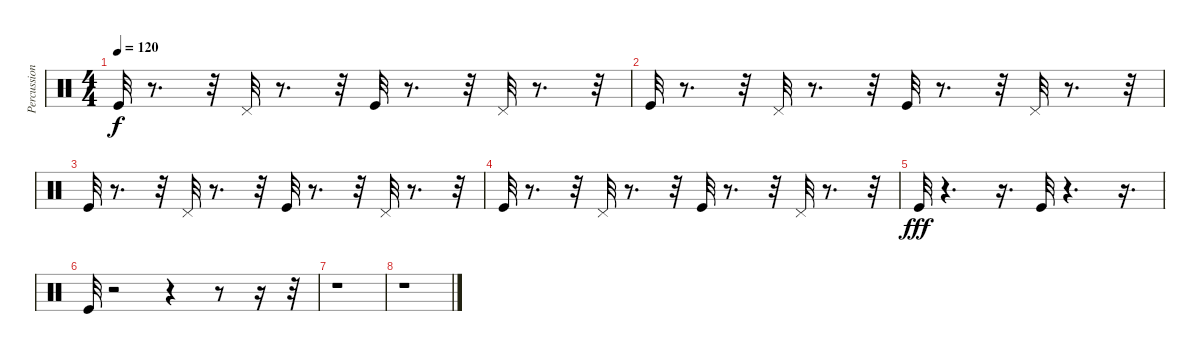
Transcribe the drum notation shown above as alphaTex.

\track ("Percussion" "Percussion") {instrument percussion}
\staff {score}
\articulation defaults
\ts (4 4)
\tempo 120
\clef neutral
\ks c "Kick (hit)".32{dy f}
r.8{d} r.32 "Pedal Hi-Hat (hit)".32 r.8{d} r.32 "Kick (hit)".32 r.8{d} r.32 "Pedal Hi-Hat (hit)".32 r.8{d} r.32 |
"Kick (hit)".32 r.8{d} r.32 "Pedal Hi-Hat (hit)".32 r.8{d} r.32 "Kick (hit)".32 r.8{d} r.32 "Pedal Hi-Hat (hit)".32 r.8{d} r.32 |
"Kick (hit)".32 r.8{d} r.32 "Pedal Hi-Hat (hit)".32 r.8{d} r.32 "Kick (hit)".32 r.8{d} r.32 "Pedal Hi-Hat (hit)".32 r.8{d} r.32 |
"Kick (hit)".32 r.8{d} r.32 "Pedal Hi-Hat (hit)".32 r.8{d} r.32 "Kick (hit)".32 r.8{d} r.32 "Pedal Hi-Hat (hit)".32 r.8{d} r.32 |
"Kick (hit)".32{dy fff} r.4{d} r.16{d} "Kick (hit)".32 r.4{d} r.16{d} |
"Kick (hit)".32 r.2 r.4 r.8 r.16 r.32 |
r.1 |
r.1
